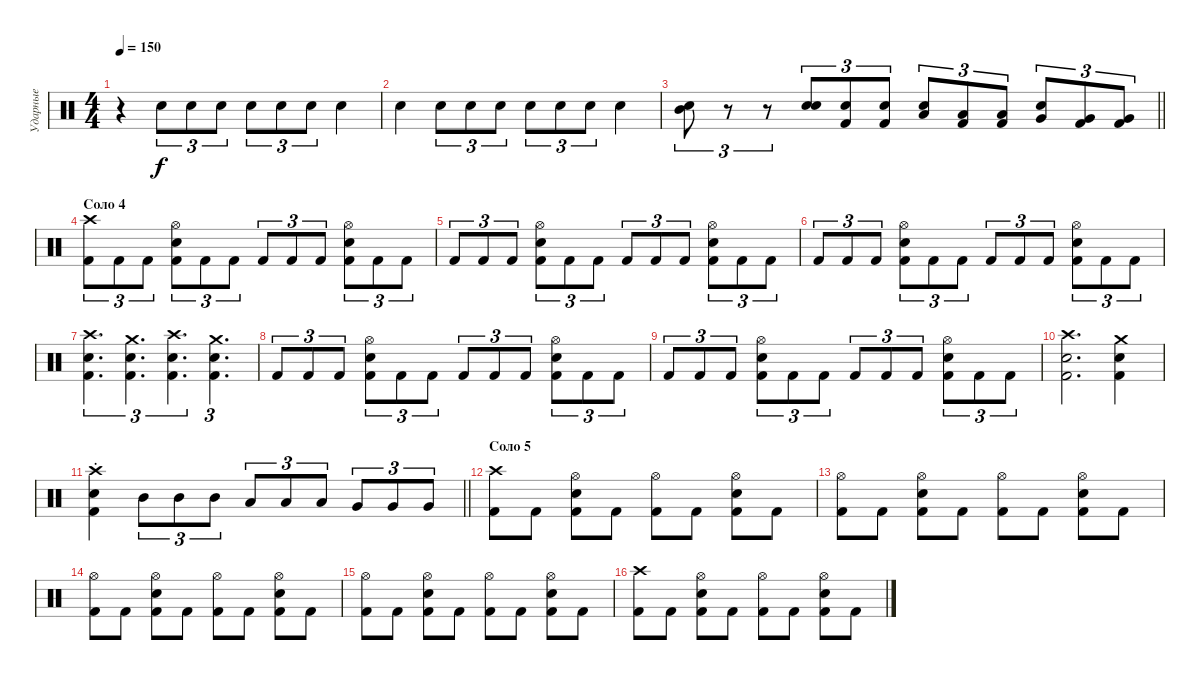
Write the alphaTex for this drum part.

\track ("Ударные" "Ударные") {instrument percussion}
\staff {score}
\articulation defaults
\ts (4 4)
\tempo 150
\clef neutral
\ks c
r.4{dy f} "Snare (hit) 2".8{tu (3 2)} "Snare (hit) 2".8{tu (3 2)} "Snare (hit) 2".8{tu (3 2)} "Snare (hit) 2".8{tu (3 2)} "Snare (hit) 2".8{tu (3 2)} "Snare (hit) 2".8{tu (3 2)} "Snare (hit) 2".4 |
"Snare (hit) 2".4 "Snare (hit) 2".8{tu (3 2)} "Snare (hit) 2".8{tu (3 2)} "Snare (hit) 2".8{tu (3 2)} "Snare (hit) 2".8{tu (3 2)} "Snare (hit) 2".8{tu (3 2)} "Snare (hit) 2".8{tu (3 2)} "Snare (hit) 2".4 |
\barLineRight lightlight
("Mid Tom (hit)" "Snare (hit) 2").8{tu (3 2)} r.8{tu (3 2)} r.8{tu (3 2)} ("Electric Snare (hit)" "Snare (hit) 2").8{tu (3 2)} ("Electric Snare (hit)" "Kick (hit) 2").8{tu (3 2)} ("Electric Snare (hit)" "Kick (hit) 2").8{tu (3 2)} ("Low Tom (hit)" "Snare (hit) 2").8{tu (3 2)} ("Low Tom (hit)" "Kick (hit) 2").8{tu (3 2)} ("Low Tom (hit)" "Kick (hit) 2").8{tu (3 2)} ("Very Low Tom (hit)" "Snare (hit) 2").8{tu (3 2)} ("Very Low Tom (hit)" "Kick (hit) 2").8{tu (3 2)} ("Very Low Tom (hit)" "Kick (hit) 2").8{tu (3 2)} |
\section ("" "Соло 4")
("Kick (hit) 2" "Crash high (hit)").8{tu (3 2)} "Kick (hit) 2".8{tu (3 2)} "Kick (hit) 2".8{tu (3 2)} ("Kick (hit) 2" "Hi-Hat (open)" "Snare (hit) 2").8{tu (3 2)} "Kick (hit) 2".8{tu (3 2)} "Kick (hit) 2".8{tu (3 2)} "Kick (hit) 2".8{tu (3 2)} "Kick (hit) 2".8{tu (3 2)} "Kick (hit) 2".8{tu (3 2)} ("Kick (hit) 2" "Hi-Hat (open)" "Snare (hit) 2").8{tu (3 2)} "Kick (hit) 2".8{tu (3 2)} "Kick (hit) 2".8{tu (3 2)} |
"Kick (hit) 2".8{tu (3 2)} "Kick (hit) 2".8{tu (3 2)} "Kick (hit) 2".8{tu (3 2)} ("Kick (hit) 2" "Hi-Hat (open)" "Snare (hit) 2").8{tu (3 2)} "Kick (hit) 2".8{tu (3 2)} "Kick (hit) 2".8{tu (3 2)} "Kick (hit) 2".8{tu (3 2)} "Kick (hit) 2".8{tu (3 2)} "Kick (hit) 2".8{tu (3 2)} ("Kick (hit) 2" "Hi-Hat (open)" "Snare (hit) 2").8{tu (3 2)} "Kick (hit) 2".8{tu (3 2)} "Kick (hit) 2".8{tu (3 2)} |
"Kick (hit) 2".8{tu (3 2)} "Kick (hit) 2".8{tu (3 2)} "Kick (hit) 2".8{tu (3 2)} ("Kick (hit) 2" "Hi-Hat (open)" "Snare (hit) 2").8{tu (3 2)} "Kick (hit) 2".8{tu (3 2)} "Kick (hit) 2".8{tu (3 2)} "Kick (hit) 2".8{tu (3 2)} "Kick (hit) 2".8{tu (3 2)} "Kick (hit) 2".8{tu (3 2)} ("Kick (hit) 2" "Hi-Hat (open)" "Snare (hit) 2").8{tu (3 2)} "Kick (hit) 2".8{tu (3 2)} "Kick (hit) 2".8{tu (3 2)} |
("Kick (hit) 2" "Crash high (hit)" "Snare (hit) 2").4{d tu (3 2)} ("Kick (hit) 2" "Crash medium (hit)" "Snare (hit) 2").4{d tu (3 2)} ("Kick (hit) 2" "Crash high (hit)" "Snare (hit) 2").4{d tu (3 2)} ("Kick (hit) 2" "Crash medium (hit)" "Snare (hit) 2").4{d tu (3 2)} |
"Kick (hit) 2".8{tu (3 2)} "Kick (hit) 2".8{tu (3 2)} "Kick (hit) 2".8{tu (3 2)} ("Kick (hit) 2" "Hi-Hat (open)" "Snare (hit) 2").8{tu (3 2)} "Kick (hit) 2".8{tu (3 2)} "Kick (hit) 2".8{tu (3 2)} "Kick (hit) 2".8{tu (3 2)} "Kick (hit) 2".8{tu (3 2)} "Kick (hit) 2".8{tu (3 2)} ("Kick (hit) 2" "Hi-Hat (open)" "Snare (hit) 2").8{tu (3 2)} "Kick (hit) 2".8{tu (3 2)} "Kick (hit) 2".8{tu (3 2)} |
"Kick (hit) 2".8{tu (3 2)} "Kick (hit) 2".8{tu (3 2)} "Kick (hit) 2".8{tu (3 2)} ("Kick (hit) 2" "Hi-Hat (open)" "Snare (hit) 2").8{tu (3 2)} "Kick (hit) 2".8{tu (3 2)} "Kick (hit) 2".8{tu (3 2)} "Kick (hit) 2".8{tu (3 2)} "Kick (hit) 2".8{tu (3 2)} "Kick (hit) 2".8{tu (3 2)} ("Kick (hit) 2" "Hi-Hat (open)" "Snare (hit) 2").8{tu (3 2)} "Kick (hit) 2".8{tu (3 2)} "Kick (hit) 2".8{tu (3 2)} |
("Kick (hit) 2" "Crash high (hit)" "Snare (hit) 2").2{d} ("Kick (hit) 2" "Crash medium (hit)" "Snare (hit) 2").4 |
\barLineRight lightlight
("Kick (hit) 2"{st} "Snare (hit) 2"{st} "Crash high (hit)"{st}).4 "Mid Tom (hit)".8{tu (3 2)} "Mid Tom (hit)".8{tu (3 2)} "Mid Tom (hit)".8{tu (3 2)} "Low Tom (hit)".8{tu (3 2)} "Low Tom (hit)".8{tu (3 2)} "Low Tom (hit)".8{tu (3 2)} "Very Low Tom (hit)".8{tu (3 2)} "Very Low Tom (hit)".8{tu (3 2)} "Very Low Tom (hit)".8{tu (3 2)} |
\section ("" "Соло 5")
("Kick (hit) 2" "Crash high (hit)").8 "Kick (hit) 2".8 ("Snare (hit) 2" "Kick (hit) 2" "Hi-Hat (open)").8 "Kick (hit) 2".8 ("Kick (hit) 2" "Hi-Hat (open)").8 "Kick (hit) 2".8 ("Snare (hit) 2" "Kick (hit) 2" "Hi-Hat (open)").8 "Kick (hit) 2".8 |
("Kick (hit) 2" "Hi-Hat (open)").8 "Kick (hit) 2".8 ("Snare (hit) 2" "Kick (hit) 2" "Hi-Hat (open)").8 "Kick (hit) 2".8 ("Kick (hit) 2" "Hi-Hat (open)").8 "Kick (hit) 2".8 ("Snare (hit) 2" "Kick (hit) 2" "Hi-Hat (open)").8 "Kick (hit) 2".8 |
("Kick (hit) 2" "Hi-Hat (open)").8 "Kick (hit) 2".8 ("Snare (hit) 2" "Kick (hit) 2" "Hi-Hat (open)").8 "Kick (hit) 2".8 ("Kick (hit) 2" "Hi-Hat (open)").8 "Kick (hit) 2".8 ("Snare (hit) 2" "Kick (hit) 2" "Hi-Hat (open)").8 "Kick (hit) 2".8 |
("Kick (hit) 2" "Hi-Hat (open)").8 "Kick (hit) 2".8 ("Snare (hit) 2" "Kick (hit) 2" "Hi-Hat (open)").8 "Kick (hit) 2".8 ("Kick (hit) 2" "Hi-Hat (open)").8 "Kick (hit) 2".8 ("Snare (hit) 2" "Kick (hit) 2" "Hi-Hat (open)").8 "Kick (hit) 2".8 |
("Kick (hit) 2" "Crash high (hit)").8 "Kick (hit) 2".8 ("Snare (hit) 2" "Kick (hit) 2" "Hi-Hat (open)").8 "Kick (hit) 2".8 ("Kick (hit) 2" "Hi-Hat (open)").8 "Kick (hit) 2".8 ("Snare (hit) 2" "Kick (hit) 2" "Hi-Hat (open)").8 "Kick (hit) 2".8
